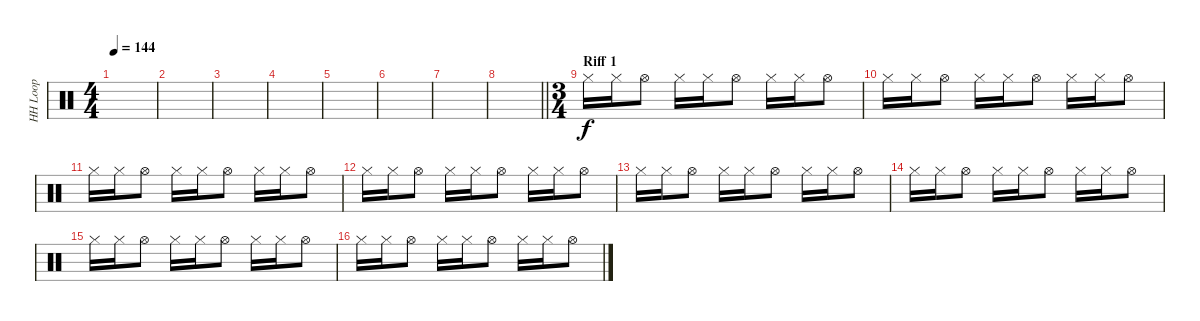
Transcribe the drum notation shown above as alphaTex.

\track ("HH Loop" "HH Loop") {instrument percussion}
\staff {score}
\articulation defaults
\ts (4 4)
\tempo 144
\clef neutral
\ks c
|
|
|
|
|
|
|
\barLineRight lightlight
|
\ts (3 4)
\section ("" "Riff 1")
"Hi-Hat (closed)".16 "Hi-Hat (closed)".16 "Hi-Hat (open)".8 "Hi-Hat (closed)".16 "Hi-Hat (closed)".16 "Hi-Hat (open)".8 "Hi-Hat (closed)".16 "Hi-Hat (closed)".16 "Hi-Hat (open)".8 |
"Hi-Hat (closed)".16 "Hi-Hat (closed)".16 "Hi-Hat (open)".8 "Hi-Hat (closed)".16 "Hi-Hat (closed)".16 "Hi-Hat (open)".8 "Hi-Hat (closed)".16 "Hi-Hat (closed)".16 "Hi-Hat (open)".8 |
"Hi-Hat (closed)".16 "Hi-Hat (closed)".16 "Hi-Hat (open)".8 "Hi-Hat (closed)".16 "Hi-Hat (closed)".16 "Hi-Hat (open)".8 "Hi-Hat (closed)".16 "Hi-Hat (closed)".16 "Hi-Hat (open)".8 |
"Hi-Hat (closed)".16 "Hi-Hat (closed)".16 "Hi-Hat (open)".8 "Hi-Hat (closed)".16 "Hi-Hat (closed)".16 "Hi-Hat (open)".8 "Hi-Hat (closed)".16 "Hi-Hat (closed)".16 "Hi-Hat (open)".8 |
"Hi-Hat (closed)".16 "Hi-Hat (closed)".16 "Hi-Hat (open)".8 "Hi-Hat (closed)".16 "Hi-Hat (closed)".16 "Hi-Hat (open)".8 "Hi-Hat (closed)".16 "Hi-Hat (closed)".16 "Hi-Hat (open)".8 |
"Hi-Hat (closed)".16 "Hi-Hat (closed)".16 "Hi-Hat (open)".8 "Hi-Hat (closed)".16 "Hi-Hat (closed)".16 "Hi-Hat (open)".8 "Hi-Hat (closed)".16 "Hi-Hat (closed)".16 "Hi-Hat (open)".8 |
"Hi-Hat (closed)".16 "Hi-Hat (closed)".16 "Hi-Hat (open)".8 "Hi-Hat (closed)".16 "Hi-Hat (closed)".16 "Hi-Hat (open)".8 "Hi-Hat (closed)".16 "Hi-Hat (closed)".16 "Hi-Hat (open)".8 |
"Hi-Hat (closed)".16 "Hi-Hat (closed)".16 "Hi-Hat (open)".8 "Hi-Hat (closed)".16 "Hi-Hat (closed)".16 "Hi-Hat (open)".8 "Hi-Hat (closed)".16 "Hi-Hat (closed)".16 "Hi-Hat (open)".8
